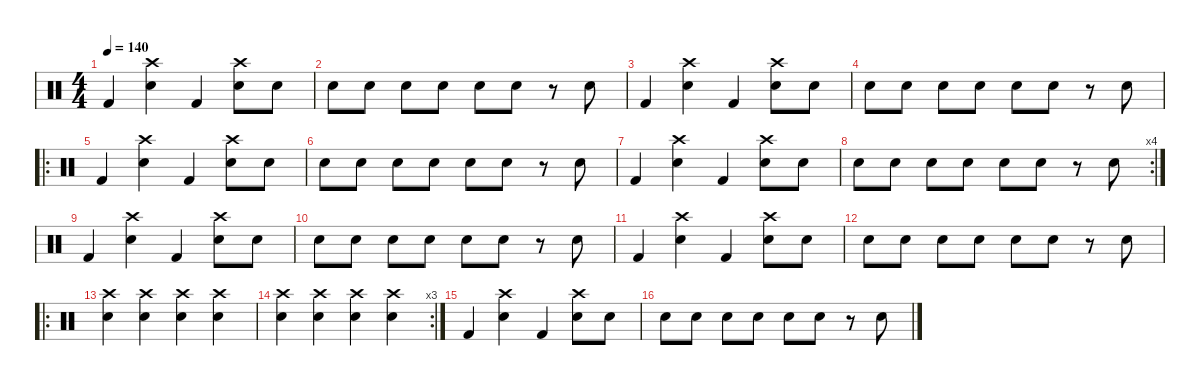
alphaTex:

\defaultSystemsLayout 4
\hideDynamics
\bracketExtendMode nobrackets
\singleTrackTrackNamePolicy hidden
\multiTrackTrackNamePolicy hidden
\otherSystemsTrackNameOrientation horizontal
\track ("Charlie Watts" "drm.") {instrument percussion}
\staff {score}
\articulation defaults
\ts (4 4)
\tempo 140
\clef neutral
\ks c "Kick (hit) 2".4{dy f beam Up}
("Snare (hit) 2" "Crash high (hit)").4{beam Down} "Kick (hit) 2".4{beam Up} ("Snare (hit) 2" "Crash high (hit)").8{beam Down} "Snare (hit) 2".8{beam Down} |
"Snare (hit) 2".8{beam Down} "Snare (hit) 2".8{beam Down} "Snare (hit) 2".8{beam Down} "Snare (hit) 2".8{beam Down} "Snare (hit) 2".8{beam Down} "Snare (hit) 2".8{beam Down} r.8{beam Down} "Snare (hit) 2".8{beam Down} |
"Kick (hit) 2".4{beam Up} ("Snare (hit) 2" "Crash high (hit)").4{beam Down} "Kick (hit) 2".4{beam Up} ("Snare (hit) 2" "Crash high (hit)").8{beam Down} "Snare (hit) 2".8{beam Down} |
"Snare (hit) 2".8{beam Down} "Snare (hit) 2".8{beam Down} "Snare (hit) 2".8{beam Down} "Snare (hit) 2".8{beam Down} "Snare (hit) 2".8{beam Down} "Snare (hit) 2".8{beam Down} r.8{beam Down} "Snare (hit) 2".8{beam Down} |
\ro "Kick (hit) 2".4{beam Up}
("Snare (hit) 2" "Crash high (hit)").4{beam Down} "Kick (hit) 2".4{beam Up} ("Snare (hit) 2" "Crash high (hit)").8{beam Down} "Snare (hit) 2".8{beam Down} |
"Snare (hit) 2".8{beam Down} "Snare (hit) 2".8{beam Down} "Snare (hit) 2".8{beam Down} "Snare (hit) 2".8{beam Down} "Snare (hit) 2".8{beam Down} "Snare (hit) 2".8{beam Down} r.8{beam Down} "Snare (hit) 2".8{beam Down} |
"Kick (hit) 2".4{beam Up} ("Snare (hit) 2" "Crash high (hit)").4{beam Down} "Kick (hit) 2".4{beam Up} ("Snare (hit) 2" "Crash high (hit)").8{beam Down} "Snare (hit) 2".8{beam Down} |
\rc 4 "Snare (hit) 2".8{beam Down} "Snare (hit) 2".8{beam Down} "Snare (hit) 2".8{beam Down} "Snare (hit) 2".8{beam Down} "Snare (hit) 2".8{beam Down} "Snare (hit) 2".8{beam Down}
r.8{beam Down} "Snare (hit) 2".8{beam Down} |
"Kick (hit) 2".4{beam Up} ("Snare (hit) 2" "Crash high (hit)").4{beam Down} "Kick (hit) 2".4{beam Up} ("Snare (hit) 2" "Crash high (hit)").8{beam Down} "Snare (hit) 2".8{beam Down} |
"Snare (hit) 2".8{beam Down} "Snare (hit) 2".8{beam Down} "Snare (hit) 2".8{beam Down} "Snare (hit) 2".8{beam Down} "Snare (hit) 2".8{beam Down} "Snare (hit) 2".8{beam Down} r.8{beam Down} "Snare (hit) 2".8{beam Down} |
"Kick (hit) 2".4{beam Up} ("Snare (hit) 2" "Crash high (hit)").4{beam Down} "Kick (hit) 2".4{beam Up} ("Snare (hit) 2" "Crash high (hit)").8{beam Down} "Snare (hit) 2".8{beam Down} |
"Snare (hit) 2".8{beam Down} "Snare (hit) 2".8{beam Down} "Snare (hit) 2".8{beam Down} "Snare (hit) 2".8{beam Down} "Snare (hit) 2".8{beam Down} "Snare (hit) 2".8{beam Down} r.8{beam Down} "Snare (hit) 2".8{beam Down} |
\ro
("Snare (hit) 2" "Crash high (hit)").4{beam Down} ("Snare (hit) 2" "Crash high (hit)").4{beam Down} ("Snare (hit) 2" "Crash high (hit)").4{beam Down} ("Snare (hit) 2" "Crash high (hit)").4{beam Down} |
\rc 3
("Snare (hit) 2" "Crash high (hit)").4{beam Down} ("Snare (hit) 2" "Crash high (hit)").4{beam Down} ("Snare (hit) 2" "Crash high (hit)").4{beam Down} ("Snare (hit) 2" "Crash high (hit)").4{beam Down} |
"Kick (hit) 2".4{beam Up} ("Snare (hit) 2" "Crash high (hit)").4{beam Down} "Kick (hit) 2".4{beam Up} ("Snare (hit) 2" "Crash high (hit)").8{beam Down} "Snare (hit) 2".8{beam Down} |
"Snare (hit) 2".8{beam Down} "Snare (hit) 2".8{beam Down} "Snare (hit) 2".8{beam Down} "Snare (hit) 2".8{beam Down} "Snare (hit) 2".8{beam Down} "Snare (hit) 2".8{beam Down} r.8{beam Down} "Snare (hit) 2".8{beam Down}
